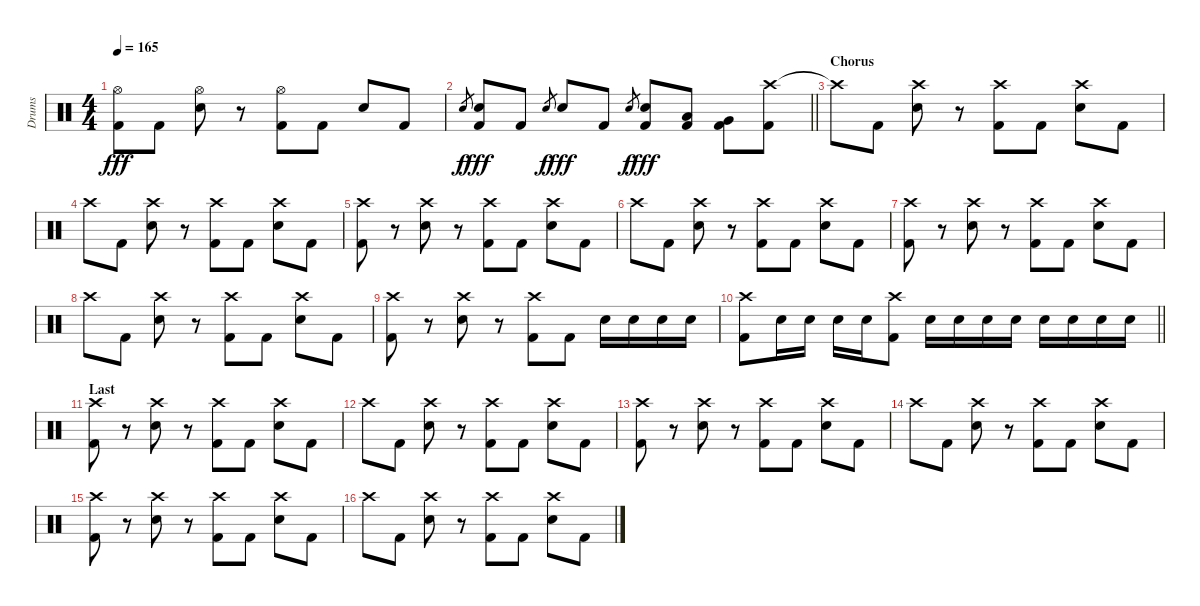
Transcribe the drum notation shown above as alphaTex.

\track ("Drums" "Drums") {instrument percussion}
\staff {score}
\articulation defaults
\ts (4 4)
\tempo 165
\clef neutral
\ks c
("Hi-Hat (open)" "Kick (hit) 2").8{dy fff} "Kick (hit) 2".8 ("Hi-Hat (open)" "Electric Snare (hit)").8 r.8 ("Hi-Hat (open)" "Kick (hit) 2").8 "Kick (hit) 2".8 "Electric Snare (hit)".8 "Kick (hit) 2".8 |
\barLineRight lightlight "Electric Snare (hit)".8{gr dy f}
("Electric Snare (hit)" "Kick (hit) 2").8{dy fff} "Kick (hit) 2".8 "Electric Snare (hit)".8{gr dy f} "Electric Snare (hit)".8{dy fff} "Kick (hit) 2".8 "Electric Snare (hit)".8{gr dy f} ("Electric Snare (hit)" "Kick (hit) 2").8{dy fff} ("Low Tom (hit)" "Kick (hit) 2").8 ("Very Low Tom (hit)" "Kick (hit) 2").8 ("Crash high (hit)" "Kick (hit) 2").8 |
\section ("" "Chorus")
"Crash high (hit)"{t}.8 "Kick (hit) 2".8 ("Crash high (hit)" "Electric Snare (hit)").8 r.8 ("Crash high (hit)" "Kick (hit) 2").8 "Kick (hit) 2".8 ("Crash high (hit)" "Electric Snare (hit)").8 "Kick (hit) 2".8 |
"Crash high (hit)".8 "Kick (hit) 2".8 ("Crash high (hit)" "Electric Snare (hit)").8 r.8 ("Crash high (hit)" "Kick (hit) 2").8 "Kick (hit) 2".8 ("Crash high (hit)" "Electric Snare (hit)").8 "Kick (hit) 2".8 |
("Crash high (hit)" "Kick (hit) 2").8 r.8 ("Crash high (hit)" "Electric Snare (hit)").8 r.8 ("Crash high (hit)" "Kick (hit) 2").8 "Kick (hit) 2".8 ("Crash high (hit)" "Electric Snare (hit)").8 "Kick (hit) 2".8 |
"Crash high (hit)".8 "Kick (hit) 2".8 ("Crash high (hit)" "Electric Snare (hit)").8 r.8 ("Crash high (hit)" "Kick (hit) 2").8 "Kick (hit) 2".8 ("Crash high (hit)" "Electric Snare (hit)").8 "Kick (hit) 2".8 |
("Crash high (hit)" "Kick (hit) 2").8 r.8 ("Crash high (hit)" "Electric Snare (hit)").8 r.8 ("Crash high (hit)" "Kick (hit) 2").8 "Kick (hit) 2".8 ("Crash high (hit)" "Electric Snare (hit)").8 "Kick (hit) 2".8 |
"Crash high (hit)".8 "Kick (hit) 2".8 ("Crash high (hit)" "Electric Snare (hit)").8 r.8 ("Crash high (hit)" "Kick (hit) 2").8 "Kick (hit) 2".8 ("Crash high (hit)" "Electric Snare (hit)").8 "Kick (hit) 2".8 |
("Crash high (hit)" "Kick (hit) 2").8 r.8 ("Crash high (hit)" "Electric Snare (hit)").8 r.8 ("Crash high (hit)" "Kick (hit) 2").8 "Kick (hit) 2".8 "Electric Snare (hit)".16 "Electric Snare (hit)".16 "Electric Snare (hit)".16 "Electric Snare (hit)".16 |
\barLineRight lightlight
("Crash high (hit)" "Kick (hit) 2").8 "Electric Snare (hit)".16 "Electric Snare (hit)".16 "Electric Snare (hit)".16 "Electric Snare (hit)".16 ("Crash high (hit)" "Kick (hit) 2").8 "Electric Snare (hit)".16 "Electric Snare (hit)".16 "Electric Snare (hit)".16 "Electric Snare (hit)".16 "Electric Snare (hit)".16 "Electric Snare (hit)".16 "Electric Snare (hit)".16 "Electric Snare (hit)".16 |
\section ("" "Last")
("Crash high (hit)" "Kick (hit) 2").8{volume 13} r.8 ("Crash high (hit)" "Electric Snare (hit)").8 r.8 ("Crash high (hit)" "Kick (hit) 2").8 "Kick (hit) 2".8 ("Crash high (hit)" "Electric Snare (hit)").8 "Kick (hit) 2".8 |
"Crash high (hit)".8 "Kick (hit) 2".8 ("Crash high (hit)" "Electric Snare (hit)").8 r.8 ("Crash high (hit)" "Kick (hit) 2").8 "Kick (hit) 2".8 ("Crash high (hit)" "Electric Snare (hit)").8 "Kick (hit) 2".8 |
("Crash high (hit)" "Kick (hit) 2").8 r.8 ("Crash high (hit)" "Electric Snare (hit)").8 r.8 ("Crash high (hit)" "Kick (hit) 2").8 "Kick (hit) 2".8 ("Crash high (hit)" "Electric Snare (hit)").8 "Kick (hit) 2".8 |
"Crash high (hit)".8 "Kick (hit) 2".8 ("Crash high (hit)" "Electric Snare (hit)").8 r.8 ("Crash high (hit)" "Kick (hit) 2").8 "Kick (hit) 2".8 ("Crash high (hit)" "Electric Snare (hit)").8 "Kick (hit) 2".8 |
("Crash high (hit)" "Kick (hit) 2").8 r.8 ("Crash high (hit)" "Electric Snare (hit)").8 r.8 ("Crash high (hit)" "Kick (hit) 2").8 "Kick (hit) 2".8 ("Crash high (hit)" "Electric Snare (hit)").8 "Kick (hit) 2".8 |
"Crash high (hit)".8 "Kick (hit) 2".8 ("Crash high (hit)" "Electric Snare (hit)").8 r.8 ("Crash high (hit)" "Kick (hit) 2").8 "Kick (hit) 2".8 ("Crash high (hit)" "Electric Snare (hit)").8 "Kick (hit) 2".8
